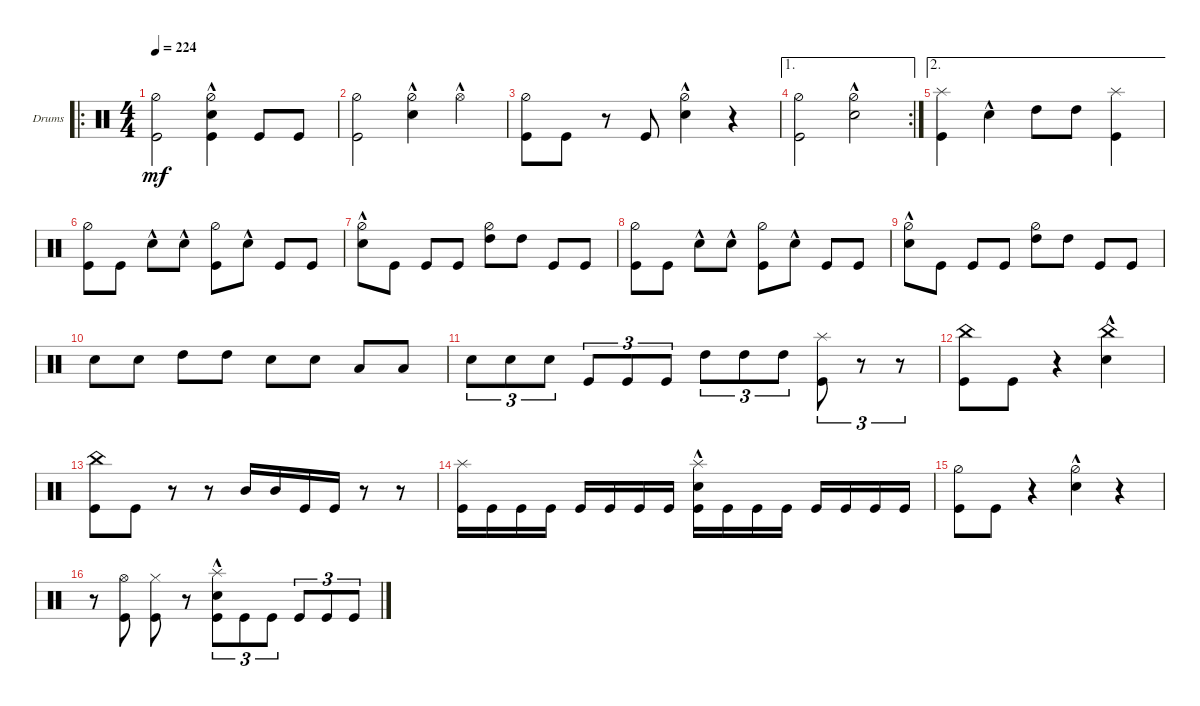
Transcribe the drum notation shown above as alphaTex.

\defaultSystemsLayout 4
\bracketExtendMode groupsimilarinstruments
\firstSystemTrackNameOrientation horizontal
\otherSystemsTrackNameOrientation horizontal
\track ("Drumkit" "Drums") {instrument percussion}
\staff {score}
\articulation defaults
\ro
\ts (4 4)
\tempo 224
\clef neutral
\ks c
("Hi-Hat (half)" "Kick (hit)").2{dy mf} ("Snare (hit) 2"{hac} "Hi-Hat (half)" "Kick (hit)").4 "Kick (hit)".8 "Kick (hit)".8 |
("Kick (hit)" "Hi-Hat (half)").2 ("Snare (hit) 2"{hac} "Hi-Hat (half)").4 "Hi-Hat (open)"{hac}.4 |
("Kick (hit)" "Hi-Hat (half)").8 "Kick (hit)".8 r.8 "Kick (hit)".8 ("Snare (hit) 2"{hac} "Hi-Hat (half)").4 r.4 |
\ae 1
\rc 2
("Kick (hit)" "Hi-Hat (half)").2 ("Hi-Hat (half)" "Snare (hit) 2"{hac}).2 |
\ae 2
("Kick (hit)" "Splash (hit)").4 "Snare (hit) 2"{hac}.4 "High Tom (hit)".8 "High Tom (hit)".8 ("Kick (hit)" "Splash (hit)").4 |
("Hi-Hat (half)" "Kick (hit)").8 "Kick (hit)".8 "Snare (hit) 2"{hac}.8 "Snare (hit) 2"{hac}.8 ("Kick (hit)" "Hi-Hat (half)").8 "Snare (hit) 2"{hac}.8 "Kick (hit)".8 "Kick (hit)".8 |
("Snare (hit) 2"{hac} "Hi-Hat (half)").8 "Kick (hit)".8 "Kick (hit)".8 "Kick (hit)".8 ("Hi-Hat (half)" "High Tom (hit)").8 "High Tom (hit)".8 "Kick (hit)".8 "Kick (hit)".8 |
("Hi-Hat (half)" "Kick (hit)").8 "Kick (hit)".8 "Snare (hit) 2"{hac}.8 "Snare (hit) 2"{hac}.8 ("Kick (hit)" "Hi-Hat (half)").8 "Snare (hit) 2"{hac}.8 "Kick (hit)".8 "Kick (hit)".8 |
("Snare (hit) 2"{hac} "Hi-Hat (half)").8 "Kick (hit)".8 "Kick (hit)".8 "Kick (hit)".8 ("Hi-Hat (half)" "High Tom (hit)").8 "High Tom (hit)".8 "Kick (hit)".8 "Kick (hit)".8 |
"Snare (hit) 2".8 "Snare (hit) 2".8 "High Tom (hit)".8 "High Tom (hit)".8 "Snare (hit) 2".8 "Snare (hit) 2".8 "Low Tom (hit)".8 "Low Tom (hit)".8 |
"Snare (hit) 2".8{tu (3 2)} "Snare (hit) 2".8{tu (3 2)} "Snare (hit) 2".8{tu (3 2)} "Kick (hit)".8{tu (3 2)} "Kick (hit)".8{tu (3 2)} "Kick (hit)".8{tu (3 2)} "High Tom (hit)".8{tu (3 2)} "High Tom (hit)".8{tu (3 2)} "High Tom (hit)".8{tu (3 2)} ("Kick (hit)" "Splash (hit)").8{tu (3 2)} r.8{tu (3 2)} r.8{tu (3 2)} |
("Kick (hit)" "China (hit)").8 "Kick (hit)".8 r.4 ("Snare (hit) 2"{hac} "China (hit)").4 |
("Kick (hit)" "China (hit)").8 "Kick (hit)".8 r.8 r.8 "Mid Tom (hit)".16 "Mid Tom (hit)".16 "Kick (hit)".16 "Kick (hit)".16 r.8 r.8 |
("Kick (hit)" "Splash (hit)").16 "Kick (hit)".16 "Kick (hit)".16 "Kick (hit)".16 "Kick (hit)".16 "Kick (hit)".16 "Kick (hit)".16 "Kick (hit)".16 ("Kick (hit)" "Splash (hit)" "Snare (hit) 2"{hac}).16 "Kick (hit)".16 "Kick (hit)".16 "Kick (hit)".16 "Kick (hit)".16 "Kick (hit)".16 "Kick (hit)".16 "Kick (hit)".16 |
("Kick (hit)" "Hi-Hat (half)").8 "Kick (hit)".8 r.4 ("Snare (hit) 2"{hac} "Hi-Hat (half)").4 r.4 |
r.8 ("Kick (hit)" "Hi-Hat (open)").8 ("Kick (hit)" "Hi-Hat (closed)").8 r.8 ("Kick (hit)" "Splash (hit)" "Snare (hit) 2"{hac}).8{tu (3 2)} "Kick (hit)".8{tu (3 2)} "Kick (hit)".8{tu (3 2)} "Kick (hit)".8{tu (3 2)} "Kick (hit)".8{tu (3 2)} "Kick (hit)".8{tu (3 2)}
